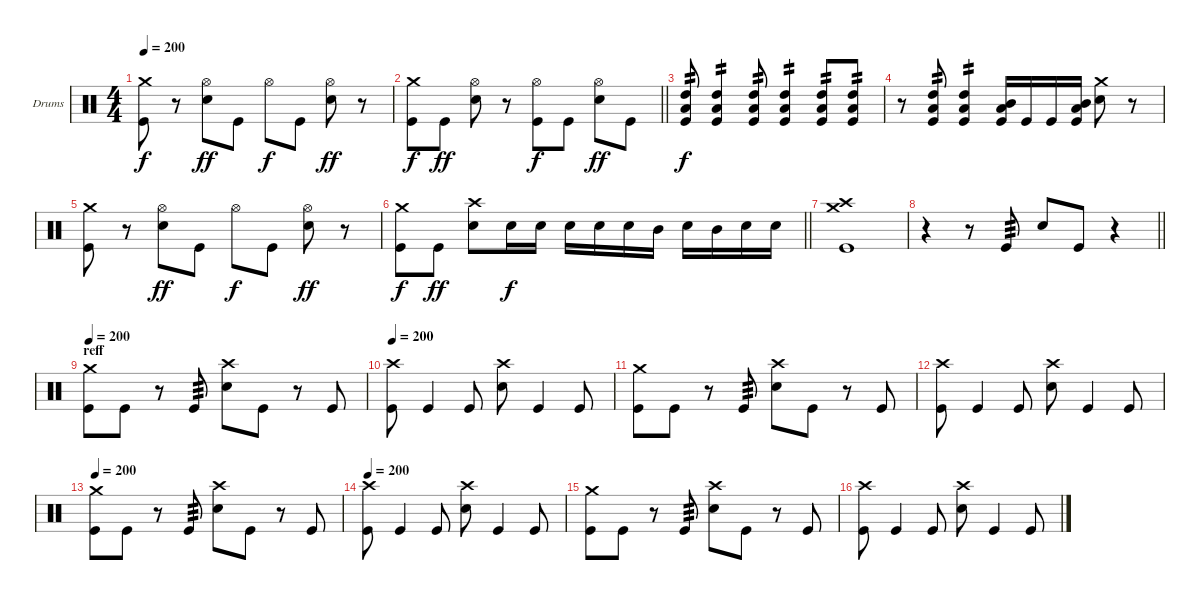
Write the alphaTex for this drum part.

\bracketExtendMode groupsimilarinstruments
\firstSystemTrackNameOrientation horizontal
\otherSystemsTrackNameOrientation horizontal
\track ("Drumkit" "Drums") {instrument percussion}
\staff {score}
\articulation defaults
\ts (4 4)
\tempo 200
\clef neutral
\ks c
("Crash medium (hit)" "Kick (hit)").8{dy f} r.8 ("Hi-Hat (open)" "Snare (hit) 2").8{dy ff} "Kick (hit)".8 "Hi-Hat (open)".8{dy f} "Kick (hit)".8 ("Hi-Hat (open)" "Snare (hit) 2").8{dy ff} r.8 |
\barLineRight lightlight
("Crash medium (hit)" "Kick (hit)").8{dy f} "Kick (hit)".8{dy ff} ("Hi-Hat (open)" "Snare (hit) 2").8 r.8 ("Hi-Hat (open)" "Kick (hit)").8{dy f} "Kick (hit)".8 ("Hi-Hat (open)" "Snare (hit) 2").8{dy ff} "Kick (hit)".8 |
("High Tom (hit)" "Low Tom (hit)" "Kick (hit)").8{tp 2 dy f} ("High Tom (hit)" "Low Tom (hit)" "Kick (hit)").4{tp 2} ("High Tom (hit)" "Low Tom (hit)" "Kick (hit)").8{tp 2} ("High Tom (hit)" "Low Tom (hit)" "Kick (hit)").4{tp 2} ("High Tom (hit)" "Low Tom (hit)" "Kick (hit)").8{tp 2} ("High Tom (hit)" "Low Tom (hit)" "Kick (hit)").8{tp 2} |
r.8 ("High Tom (hit)" "Low Tom (hit)" "Kick (hit)").8{tp 2} ("High Tom (hit)" "Low Tom (hit)" "Kick (hit)").4{tp 2} ("Mid Tom (hit)" "Low Tom (hit)" "Kick (hit)").16 "Kick (hit)".16 "Kick (hit)".16 ("Mid Tom (hit)" "Low Tom (hit)" "Kick (hit)").16 ("Crash medium (hit)" "Snare (hit) 2").8 r.8 |
("Crash medium (hit)" "Kick (hit)").8 r.8 ("Hi-Hat (open)" "Snare (hit) 2").8{dy ff} "Kick (hit)".8 "Hi-Hat (open)".8{dy f} "Kick (hit)".8 ("Hi-Hat (open)" "Snare (hit) 2").8{dy ff} r.8 |
\barLineRight lightlight
("Crash medium (hit)" "Kick (hit)").8{dy f} "Kick (hit)".8{dy ff} ("Crash high (hit)" "Snare (hit) 2").8 "Snare (hit) 2".16{dy f} "Snare (hit) 2".16 "Snare (hit) 2".16 "Snare (hit) 2".16 "Snare (hit) 2".16 "Mid Tom (hit)".16 "Snare (hit) 2".16 "Mid Tom (hit)".16 "Snare (hit) 2".16 "Snare (hit) 2".16 |
\section ("" "")
("Crash high (hit)" "Crash medium (hit)" "Kick (hit)").1 |
\barLineRight lightlight
r.4 r.8 "Kick (hit)".8{tp 3} "Snare (hit) 2".8 "Kick (hit)".8 r.4 |
\section ("" "reff")
\tempo 200
("Crash medium (hit)" "Kick (hit)").8 "Kick (hit)".8 r.8 "Kick (hit)".8{tp 3} ("Crash high (hit)" "Snare (hit) 2").8 "Kick (hit)".8 r.8 "Kick (hit)".8 |
\tempo 200
("Crash high (hit)" "Kick (hit)").8 "Kick (hit)".4 "Kick (hit)".8 ("Crash high (hit)" "Snare (hit) 2").8 "Kick (hit)".4 "Kick (hit)".8 |
("Crash medium (hit)" "Kick (hit)").8 "Kick (hit)".8 r.8 "Kick (hit)".8{tp 3} ("Crash high (hit)" "Snare (hit) 2").8 "Kick (hit)".8 r.8 "Kick (hit)".8 |
("Crash high (hit)" "Kick (hit)").8 "Kick (hit)".4 "Kick (hit)".8 ("Crash high (hit)" "Snare (hit) 2").8 "Kick (hit)".4 "Kick (hit)".8 |
\tempo 200
("Crash medium (hit)" "Kick (hit)").8 "Kick (hit)".8 r.8 "Kick (hit)".8{tp 3} ("Crash high (hit)" "Snare (hit) 2").8 "Kick (hit)".8 r.8 "Kick (hit)".8 |
\tempo 200
("Crash high (hit)" "Kick (hit)").8 "Kick (hit)".4 "Kick (hit)".8 ("Crash high (hit)" "Snare (hit) 2").8 "Kick (hit)".4 "Kick (hit)".8 |
("Crash medium (hit)" "Kick (hit)").8 "Kick (hit)".8 r.8 "Kick (hit)".8{tp 3} ("Crash high (hit)" "Snare (hit) 2").8 "Kick (hit)".8 r.8 "Kick (hit)".8 |
("Crash high (hit)" "Kick (hit)").8 "Kick (hit)".4 "Kick (hit)".8 ("Crash high (hit)" "Snare (hit) 2").8 "Kick (hit)".4 "Kick (hit)".8
